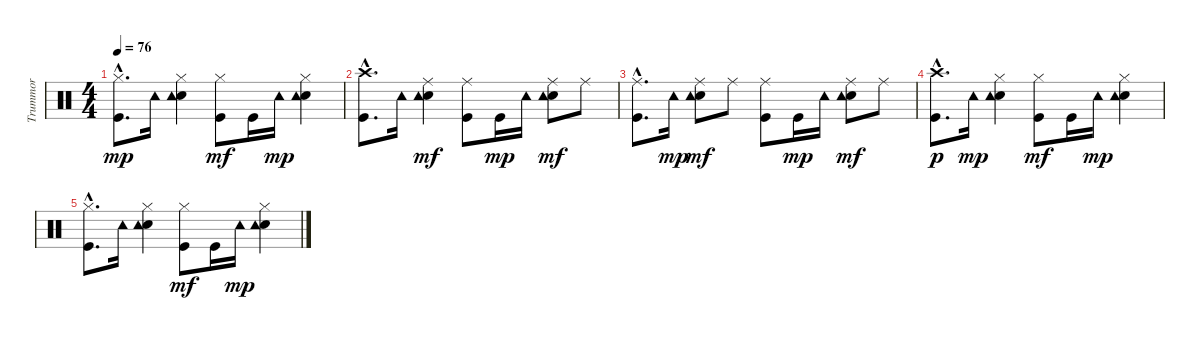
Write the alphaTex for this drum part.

\track ("Trummor" "Trummor") {instrument percussion}
\staff {score}
\articulation defaults
\ts (4 4)
\tempo 76
\clef neutral
\ks c
("Hi-Hat (closed)"{hac} "Kick (hit)"{hac}).8{d dy mp} "Tambourine (hit)".16 ("Hi-Hat (closed)" "Snare (hit) 2" "Tambourine (hit)").4 ("Hi-Hat (closed)" "Kick (hit)").8{dy mf} "Kick (hit)".16 "Tambourine (hit)".16{dy mp} ("Hi-Hat (closed)" "Snare (hit) 2" "Tambourine (hit)").4 |
("Crash high (hit)"{hac} "Kick (hit)"{hac}).8{d} "Tambourine (hit)".16 ("Ride (middle)" "Snare (hit) 2" "Tambourine (hit)").4{dy mf} ("Ride (middle)" "Kick (hit)").8 "Kick (hit)".16{dy mp} "Tambourine (hit)".16 ("Ride (middle)" "Snare (hit) 2" "Tambourine (hit)").8{dy mf} "Ride (middle)".8 |
("Ride (middle)"{hac} "Kick (hit)"{hac}).8{d} "Tambourine (hit)".16{dy mp} ("Ride (middle)" "Snare (hit) 2" "Tambourine (hit)").8{dy mf} "Ride (middle)".8 ("Ride (middle)" "Kick (hit)").8 "Kick (hit)".16{dy mp} "Tambourine (hit)".16 ("Ride (middle)" "Snare (hit) 2" "Tambourine (hit)").8{dy mf} "Ride (middle)".8 |
("Crash high (hit)"{hac} "Kick (hit)"{hac}).8{d dy p} "Tambourine (hit)".16{dy mp} ("Hi-Hat (closed)" "Snare (hit) 2" "Tambourine (hit)").4 ("Hi-Hat (closed)" "Kick (hit)").8{dy mf} "Kick (hit)".16 "Tambourine (hit)".16{dy mp} ("Hi-Hat (closed)" "Snare (hit) 2" "Tambourine (hit)").4 |
("Hi-Hat (closed)"{hac} "Kick (hit)"{hac}).8{d} "Tambourine (hit)".16 ("Hi-Hat (closed)" "Snare (hit) 2" "Tambourine (hit)").4 ("Hi-Hat (closed)" "Kick (hit)").8{dy mf} "Kick (hit)".16 "Tambourine (hit)".16{dy mp} ("Hi-Hat (closed)" "Snare (hit) 2" "Tambourine (hit)").4
